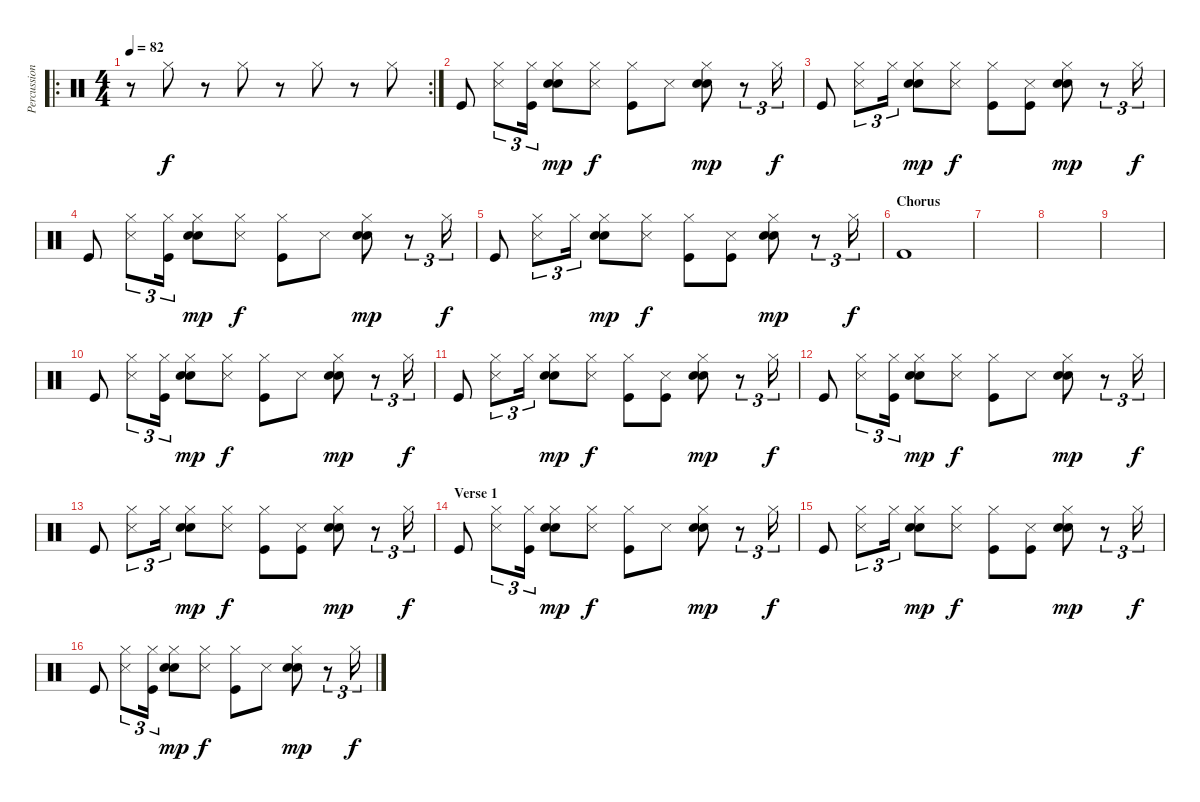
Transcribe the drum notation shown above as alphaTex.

\track ("Percussion" "Percussion") {instrument percussion}
\staff {score}
\articulation defaults
\ro
\rc 2
\ts (4 4)
\tempo 82
\clef neutral
\ks c
r.8{dy f volume 4} "Hi-Hat (closed)".8{balance 0} r.8 "Hi-Hat (closed)".8{balance 16} r.8 "Hi-Hat (closed)".8{balance 0} r.8 "Hi-Hat (closed)".8{balance 16} |
"Kick (hit)".8{volume 13 balance 8} ("Hi-Hat (closed)" "Snare (side stick) 3").8{tu (3 2)} ("Hi-Hat (closed)" "Kick (hit)").16{tu (3 2)} ("Hi-Hat (closed)" "Hand Clap (hit)" "Electric Snare (hit)").8{dy mp} ("Hi-Hat (closed)" "Snare (side stick) 3").8{dy f} ("Hi-Hat (closed)" "Kick (hit)").8 "Snare (side stick) 3".8 ("Hi-Hat (closed)" "Hand Clap (hit)" "Electric Snare (hit)").8{dy mp} r.8{tu (3 2)} "Hi-Hat (closed)".16{tu (3 2) dy f} |
"Kick (hit)".8 ("Hi-Hat (closed)" "Snare (side stick) 3").8{tu (3 2)} "Hi-Hat (closed)".16{tu (3 2)} ("Hi-Hat (closed)" "Hand Clap (hit)" "Electric Snare (hit)").8{dy mp} ("Hi-Hat (closed)" "Snare (side stick) 3").8{dy f} ("Hi-Hat (closed)" "Kick (hit)").8 ("Snare (side stick) 3" "Kick (hit)").8 ("Hi-Hat (closed)" "Hand Clap (hit)" "Electric Snare (hit)").8{dy mp} r.8{tu (3 2)} "Hi-Hat (closed)".16{tu (3 2) dy f} |
"Kick (hit)".8{volume 13} ("Hi-Hat (closed)" "Snare (side stick) 3").8{tu (3 2)} ("Hi-Hat (closed)" "Kick (hit)").16{tu (3 2)} ("Hi-Hat (closed)" "Hand Clap (hit)" "Electric Snare (hit)").8{dy mp} ("Hi-Hat (closed)" "Snare (side stick) 3").8{dy f} ("Hi-Hat (closed)" "Kick (hit)").8 "Snare (side stick) 3".8 ("Hi-Hat (closed)" "Hand Clap (hit)" "Electric Snare (hit)").8{dy mp} r.8{tu (3 2)} "Hi-Hat (closed)".16{tu (3 2) dy f} |
"Kick (hit)".8 ("Hi-Hat (closed)" "Snare (side stick) 3").8{tu (3 2)} "Hi-Hat (closed)".16{tu (3 2)} ("Hi-Hat (closed)" "Hand Clap (hit)" "Electric Snare (hit)").8{dy mp} ("Hi-Hat (closed)" "Snare (side stick) 3").8{dy f} ("Hi-Hat (closed)" "Kick (hit)").8 ("Snare (side stick) 3" "Kick (hit)").8 ("Hi-Hat (closed)" "Hand Clap (hit)" "Electric Snare (hit)").8{dy mp} r.8{tu (3 2)} "Hi-Hat (closed)".16{tu (3 2) dy f} |
\section ("" "Chorus")
"Kick (hit) 2".1 |
|
|
|
"Kick (hit)".8{volume 13} ("Hi-Hat (closed)" "Snare (side stick) 3").8{tu (3 2)} ("Hi-Hat (closed)" "Kick (hit)").16{tu (3 2)} ("Hi-Hat (closed)" "Hand Clap (hit)" "Electric Snare (hit)").8{dy mp} ("Hi-Hat (closed)" "Snare (side stick) 3").8{dy f} ("Hi-Hat (closed)" "Kick (hit)").8 "Snare (side stick) 3".8 ("Hi-Hat (closed)" "Hand Clap (hit)" "Electric Snare (hit)").8{dy mp} r.8{tu (3 2)} "Hi-Hat (closed)".16{tu (3 2) dy f} |
"Kick (hit)".8 ("Hi-Hat (closed)" "Snare (side stick) 3").8{tu (3 2)} "Hi-Hat (closed)".16{tu (3 2)} ("Hi-Hat (closed)" "Hand Clap (hit)" "Electric Snare (hit)").8{dy mp} ("Hi-Hat (closed)" "Snare (side stick) 3").8{dy f} ("Hi-Hat (closed)" "Kick (hit)").8 ("Snare (side stick) 3" "Kick (hit)").8 ("Hi-Hat (closed)" "Hand Clap (hit)" "Electric Snare (hit)").8{dy mp} r.8{tu (3 2)} "Hi-Hat (closed)".16{tu (3 2) dy f} |
"Kick (hit)".8{volume 13} ("Hi-Hat (closed)" "Snare (side stick) 3").8{tu (3 2)} ("Hi-Hat (closed)" "Kick (hit)").16{tu (3 2)} ("Hi-Hat (closed)" "Hand Clap (hit)" "Electric Snare (hit)").8{dy mp} ("Hi-Hat (closed)" "Snare (side stick) 3").8{dy f} ("Hi-Hat (closed)" "Kick (hit)").8 "Snare (side stick) 3".8 ("Hi-Hat (closed)" "Hand Clap (hit)" "Electric Snare (hit)").8{dy mp} r.8{tu (3 2)} "Hi-Hat (closed)".16{tu (3 2) dy f} |
"Kick (hit)".8 ("Hi-Hat (closed)" "Snare (side stick) 3").8{tu (3 2)} "Hi-Hat (closed)".16{tu (3 2)} ("Hi-Hat (closed)" "Hand Clap (hit)" "Electric Snare (hit)").8{dy mp} ("Hi-Hat (closed)" "Snare (side stick) 3").8{dy f} ("Hi-Hat (closed)" "Kick (hit)").8 ("Snare (side stick) 3" "Kick (hit)").8 ("Hi-Hat (closed)" "Hand Clap (hit)" "Electric Snare (hit)").8{dy mp} r.8{tu (3 2)} "Hi-Hat (closed)".16{tu (3 2) dy f} |
\section ("" "Verse 1")
"Kick (hit)".8{volume 13} ("Hi-Hat (closed)" "Snare (side stick) 3").8{tu (3 2)} ("Hi-Hat (closed)" "Kick (hit)").16{tu (3 2)} ("Hi-Hat (closed)" "Hand Clap (hit)" "Electric Snare (hit)").8{dy mp} ("Hi-Hat (closed)" "Snare (side stick) 3").8{dy f} ("Hi-Hat (closed)" "Kick (hit)").8 "Snare (side stick) 3".8 ("Hi-Hat (closed)" "Hand Clap (hit)" "Electric Snare (hit)").8{dy mp} r.8{tu (3 2)} "Hi-Hat (closed)".16{tu (3 2) dy f} |
"Kick (hit)".8 ("Hi-Hat (closed)" "Snare (side stick) 3").8{tu (3 2)} "Hi-Hat (closed)".16{tu (3 2)} ("Hi-Hat (closed)" "Hand Clap (hit)" "Electric Snare (hit)").8{dy mp} ("Hi-Hat (closed)" "Snare (side stick) 3").8{dy f} ("Hi-Hat (closed)" "Kick (hit)").8 ("Snare (side stick) 3" "Kick (hit)").8 ("Hi-Hat (closed)" "Hand Clap (hit)" "Electric Snare (hit)").8{dy mp} r.8{tu (3 2)} "Hi-Hat (closed)".16{tu (3 2) dy f} |
"Kick (hit)".8{volume 13} ("Hi-Hat (closed)" "Snare (side stick) 3").8{tu (3 2)} ("Hi-Hat (closed)" "Kick (hit)").16{tu (3 2)} ("Hi-Hat (closed)" "Hand Clap (hit)" "Electric Snare (hit)").8{dy mp} ("Hi-Hat (closed)" "Snare (side stick) 3").8{dy f} ("Hi-Hat (closed)" "Kick (hit)").8 "Snare (side stick) 3".8 ("Hi-Hat (closed)" "Hand Clap (hit)" "Electric Snare (hit)").8{dy mp} r.8{tu (3 2)} "Hi-Hat (closed)".16{tu (3 2) dy f}
